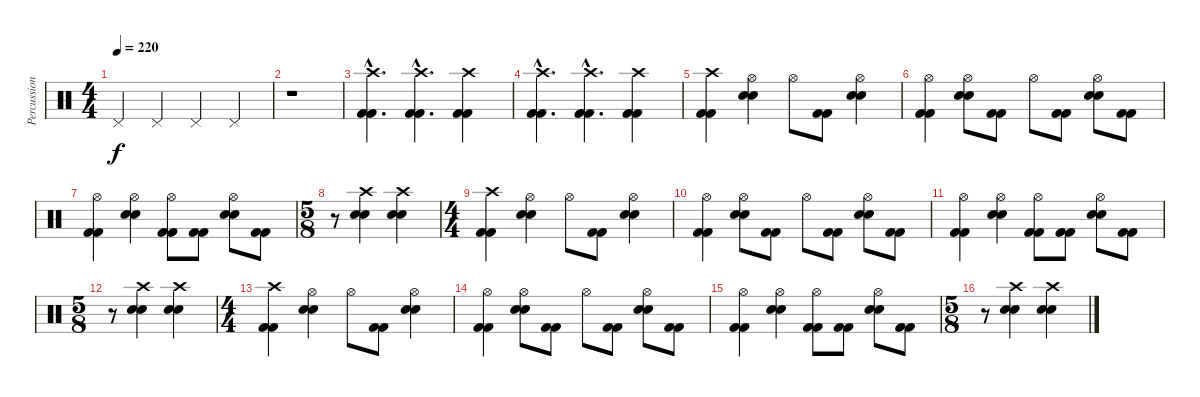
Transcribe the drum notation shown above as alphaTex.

\track ("Percussion" "Percussion") {instrument percussion}
\staff {score}
\articulation defaults
\ts (4 4)
\tempo 220
\clef neutral
\ks c "Pedal Hi-Hat (hit)".4{dy f} "Pedal Hi-Hat (hit)".4 "Pedal Hi-Hat (hit)".4 "Pedal Hi-Hat (hit)".4
|
r.1 |
("Crash high (hit)"{hac} "Kick (hit) 2"{hac} "Kick (hit) 2"{hac}).4{d} ("Crash high (hit)"{hac} "Kick (hit) 2"{hac} "Kick (hit) 2"{hac}).4{d} ("Crash high (hit)" "Kick (hit) 2" "Kick (hit) 2").4 |
("Crash high (hit)"{hac} "Kick (hit) 2"{hac} "Kick (hit) 2"{hac}).4{d} ("Crash high (hit)"{hac} "Kick (hit) 2"{hac} "Kick (hit) 2"{hac}).4{d} ("Crash high (hit)" "Kick (hit) 2" "Kick (hit) 2").4 |
("Crash high (hit)" "Kick (hit) 2" "Kick (hit) 2").4 ("Hi-Hat (open)" "Electric Snare (hit)" "Electric Snare (hit)").4 "Hi-Hat (open)".8 ("Kick (hit) 2" "Kick (hit) 2").8 ("Hi-Hat (open)" "Electric Snare (hit)" "Electric Snare (hit)").4 |
("Hi-Hat (open)" "Kick (hit) 2" "Kick (hit) 2").4 ("Hi-Hat (open)" "Electric Snare (hit)" "Electric Snare (hit)").8 ("Kick (hit) 2" "Kick (hit) 2").8 "Hi-Hat (open)".8 ("Kick (hit) 2" "Kick (hit) 2").8 ("Hi-Hat (open)" "Electric Snare (hit)" "Electric Snare (hit)").8 ("Kick (hit) 2" "Kick (hit) 2").8 |
("Hi-Hat (open)" "Kick (hit) 2" "Kick (hit) 2").4 ("Hi-Hat (open)" "Electric Snare (hit)" "Electric Snare (hit)").4 ("Hi-Hat (open)" "Kick (hit) 2" "Kick (hit) 2").8 ("Kick (hit) 2" "Kick (hit) 2").8 ("Hi-Hat (open)" "Electric Snare (hit)" "Electric Snare (hit)").8 ("Kick (hit) 2" "Kick (hit) 2").8 |
\ts (5 8)
r.8 ("Crash high (hit)" "Electric Snare (hit)" "Electric Snare (hit)").4 ("Crash high (hit)" "Electric Snare (hit)" "Electric Snare (hit)").4 |
\ts (4 4)
("Crash high (hit)" "Kick (hit) 2" "Kick (hit) 2").4 ("Hi-Hat (open)" "Electric Snare (hit)" "Electric Snare (hit)").4 "Hi-Hat (open)".8 ("Kick (hit) 2" "Kick (hit) 2").8 ("Hi-Hat (open)" "Electric Snare (hit)" "Electric Snare (hit)").4 |
("Hi-Hat (open)" "Kick (hit) 2" "Kick (hit) 2").4 ("Hi-Hat (open)" "Electric Snare (hit)" "Electric Snare (hit)").8 ("Kick (hit) 2" "Kick (hit) 2").8 "Hi-Hat (open)".8 ("Kick (hit) 2" "Kick (hit) 2").8 ("Hi-Hat (open)" "Electric Snare (hit)" "Electric Snare (hit)").8 ("Kick (hit) 2" "Kick (hit) 2").8 |
("Hi-Hat (open)" "Kick (hit) 2" "Kick (hit) 2").4 ("Hi-Hat (open)" "Electric Snare (hit)" "Electric Snare (hit)").4 ("Hi-Hat (open)" "Kick (hit) 2" "Kick (hit) 2").8 ("Kick (hit) 2" "Kick (hit) 2").8 ("Hi-Hat (open)" "Electric Snare (hit)" "Electric Snare (hit)").8 ("Kick (hit) 2" "Kick (hit) 2").8 |
\ts (5 8)
r.8 ("Crash high (hit)" "Electric Snare (hit)" "Electric Snare (hit)").4 ("Crash high (hit)" "Electric Snare (hit)" "Electric Snare (hit)").4 |
\ts (4 4)
("Crash high (hit)" "Kick (hit) 2" "Kick (hit) 2").4 ("Hi-Hat (open)" "Electric Snare (hit)" "Electric Snare (hit)").4 "Hi-Hat (open)".8 ("Kick (hit) 2" "Kick (hit) 2").8 ("Hi-Hat (open)" "Electric Snare (hit)" "Electric Snare (hit)").4 |
("Hi-Hat (open)" "Kick (hit) 2" "Kick (hit) 2").4 ("Hi-Hat (open)" "Electric Snare (hit)" "Electric Snare (hit)").8 ("Kick (hit) 2" "Kick (hit) 2").8 "Hi-Hat (open)".8 ("Kick (hit) 2" "Kick (hit) 2").8 ("Hi-Hat (open)" "Electric Snare (hit)" "Electric Snare (hit)").8 ("Kick (hit) 2" "Kick (hit) 2").8 |
("Hi-Hat (open)" "Kick (hit) 2" "Kick (hit) 2").4 ("Hi-Hat (open)" "Electric Snare (hit)" "Electric Snare (hit)").4 ("Hi-Hat (open)" "Kick (hit) 2" "Kick (hit) 2").8 ("Kick (hit) 2" "Kick (hit) 2").8 ("Hi-Hat (open)" "Electric Snare (hit)" "Electric Snare (hit)").8 ("Kick (hit) 2" "Kick (hit) 2").8 |
\ts (5 8)
r.8 ("Crash high (hit)" "Electric Snare (hit)" "Electric Snare (hit)").4 ("Crash high (hit)" "Electric Snare (hit)" "Electric Snare (hit)").4
